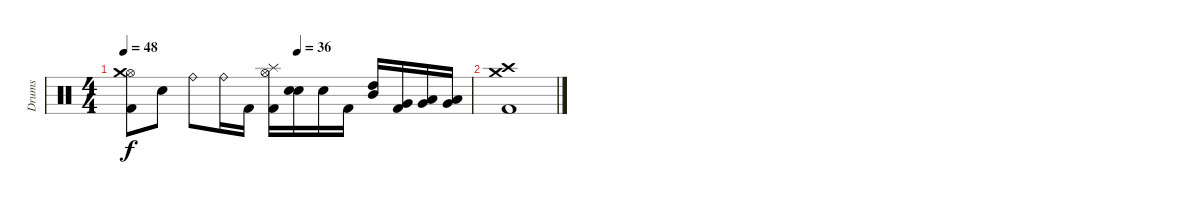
\track ("Drums" "Drums") {instrument percussion}
\staff {score}
\articulation defaults
\ts (4 4)
\tempo 48
\tempo (36 0.5)
\clef neutral
\ks c
("Hi-Hat (open)" "Crash medium (hit)" "Kick (hit) 2").8{dy f} "Electric Snare (hit)".8 "Ride (bell)".8 "Ride (bell)".16 "Kick (hit) 2".16 ("Hi-Hat (open)" "Splash (hit)" "Kick (hit) 2").16 ("Electric Snare (hit)" "Electric Snare (hit)").16{bu 30} "Electric Snare (hit)".16 "Kick (hit) 2".16 ("High Tom (hit)" "Mid Tom (hit)").16{bu 30} ("Very Low Tom (hit)" "Kick (hit) 2").16 ("Low Tom (hit)" "Very Low Tom (hit)").16{bu 30} ("Very Low Tom (hit)" "Low Floor Tom (hit)").16{bu 30} |
("Crash high (hit)" "Crash medium (hit)" "Kick (hit) 2").1
